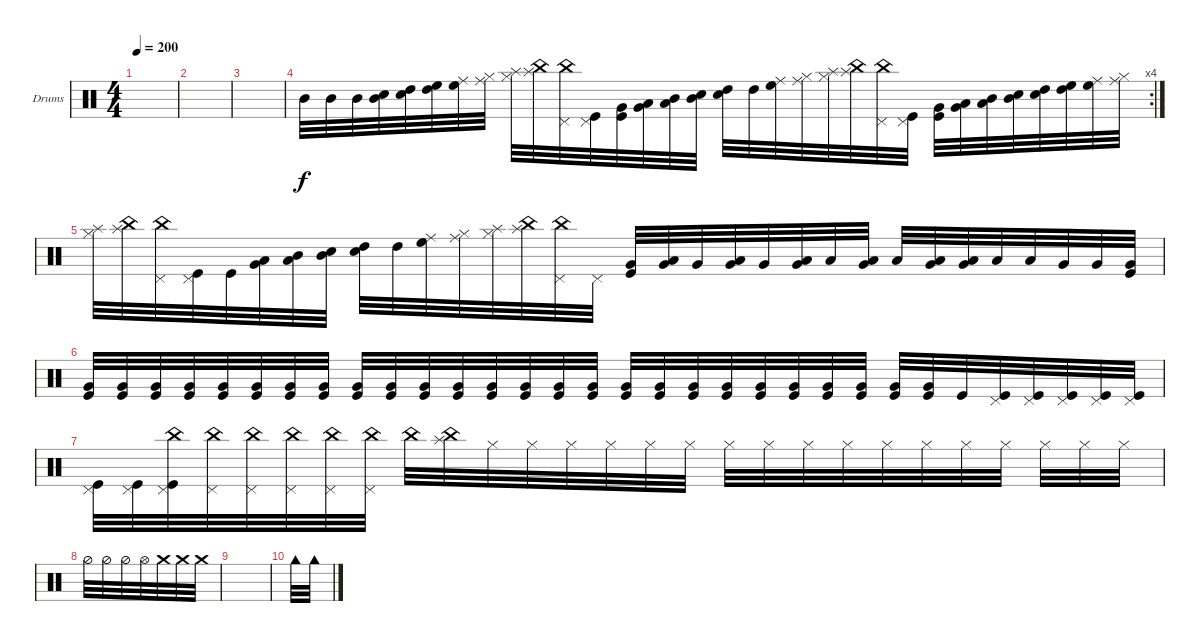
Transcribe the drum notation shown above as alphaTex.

\defaultSystemsLayout 4
\bracketExtendMode groupsimilarinstruments
\firstSystemTrackNameOrientation horizontal
\otherSystemsTrackNameOrientation horizontal
\track ("Drumkit" "Drums") {instrument percussion}
\staff {score}
\articulation defaults
\ts (4 4)
\tempo 200
\clef neutral
\ks c
|
|
|
\rc 4 "Mid Tom (hit)".32 "Mid Tom (hit)".32 "Mid Tom (hit)".32
("Mid Tom (hit)" "Snare (hit) 2").32 ("Snare (hit) 2" "High Tom (hit)").32 ("High Tom (hit)" "High Floor Tom (hit)").32 ("High Floor Tom (hit)" "Ride (middle)").32 ("Ride (middle)" "Hi-Hat (closed)").32 ("Hi-Hat (closed)" "Splash (hit)").32 ("Splash (hit)" "China (hit)").32 ("China (hit)" "Pedal Hi-Hat (hit)").32 ("Pedal Hi-Hat (hit)" "Kick (hit)").32 ("Kick (hit)" "Very Low Tom (hit)").32 ("Very Low Tom (hit)" "Low Tom (hit)").32 ("Low Tom (hit)" "Mid Tom (hit)").32 ("Mid Tom (hit)" "Snare (hit) 2").32 ("Snare (hit) 2" "High Tom (hit)").32 "High Tom (hit)".32 ("High Floor Tom (hit)" "Ride (middle)").32 ("Ride (middle)" "Hi-Hat (closed)").32 ("Hi-Hat (closed)" "Splash (hit)").32 ("Splash (hit)" "China (hit)").32 ("China (hit)" "Pedal Hi-Hat (hit)").32 ("Pedal Hi-Hat (hit)" "Kick (hit)").32 ("Kick (hit)" "Very Low Tom (hit)").32 ("Very Low Tom (hit)" "Low Tom (hit)").32 ("Low Tom (hit)" "Mid Tom (hit)").32 ("Mid Tom (hit)" "Snare (hit) 2").32 ("Snare (hit) 2" "High Tom (hit)").32 ("High Tom (hit)" "High Floor Tom (hit)").32 ("High Floor Tom (hit)" "Ride (middle)").32 ("Ride (middle)" "Hi-Hat (closed)").32 |
("Hi-Hat (closed)" "Splash (hit)").32 ("Splash (hit)" "China (hit)").32 ("China (hit)" "Pedal Hi-Hat (hit)").32 ("Pedal Hi-Hat (hit)" "Kick (hit)").32 "Kick (hit)".32 ("Very Low Tom (hit)" "Low Tom (hit)").32 ("Low Tom (hit)" "Mid Tom (hit)").32 ("Mid Tom (hit)" "Snare (hit) 2").32 ("Snare (hit) 2" "High Tom (hit)").32 "High Tom (hit)".32 ("High Floor Tom (hit)" "Ride (middle)").32 ("Ride (middle)" "Hi-Hat (closed)").32 ("Hi-Hat (closed)" "Splash (hit)").32 ("Splash (hit)" "China (hit)").32 ("China (hit)" "Pedal Hi-Hat (hit)").32 "Pedal Hi-Hat (hit)".32 ("Kick (hit)" "Very Low Tom (hit)").32 ("Very Low Tom (hit)" "Low Tom (hit)").32 "Very Low Tom (hit)".32 ("Very Low Tom (hit)" "Low Tom (hit)").32 "Very Low Tom (hit)".32 ("Very Low Tom (hit)" "Low Tom (hit)").32 "Low Tom (hit)".32 ("Very Low Tom (hit)" "Low Tom (hit)").32 "Low Tom (hit)".32 ("Very Low Tom (hit)" "Low Tom (hit)").32 ("Low Tom (hit)" "Very Low Tom (hit)").32 "Low Tom (hit)".32 "Low Tom (hit)".32 "Very Low Tom (hit)".32 "Very Low Tom (hit)".32 ("Very Low Tom (hit)" "Kick (hit)").32 |
("Kick (hit)" "Very Low Tom (hit)").32 ("Very Low Tom (hit)" "Kick (hit)").32 ("Kick (hit)" "Very Low Tom (hit)").32 ("Very Low Tom (hit)" "Kick (hit)").32 ("Kick (hit)" "Very Low Tom (hit)").32 ("Very Low Tom (hit)" "Kick (hit)").32 ("Kick (hit)" "Very Low Tom (hit)").32 ("Very Low Tom (hit)" "Kick (hit)").32 ("Kick (hit)" "Very Low Tom (hit)").32 ("Very Low Tom (hit)" "Kick (hit)").32 ("Kick (hit)" "Very Low Tom (hit)").32 ("Very Low Tom (hit)" "Kick (hit)").32 ("Kick (hit)" "Very Low Tom (hit)").32 ("Very Low Tom (hit)" "Kick (hit)").32 ("Kick (hit)" "Very Low Tom (hit)").32 ("Very Low Tom (hit)" "Kick (hit)").32 ("Kick (hit)" "Very Low Tom (hit)").32 ("Very Low Tom (hit)" "Kick (hit)").32 ("Kick (hit)" "Very Low Tom (hit)").32 ("Very Low Tom (hit)" "Kick (hit)").32 ("Kick (hit)" "Very Low Tom (hit)").32 ("Very Low Tom (hit)" "Kick (hit)").32 ("Kick (hit)" "Very Low Tom (hit)").32 ("Very Low Tom (hit)" "Kick (hit)").32 ("Kick (hit)" "Very Low Tom (hit)").32 ("Very Low Tom (hit)" "Kick (hit)").32 "Kick (hit)".32 ("Kick (hit)" "Pedal Hi-Hat (hit)").32 ("Pedal Hi-Hat (hit)" "Kick (hit)").32 ("Kick (hit)" "Pedal Hi-Hat (hit)").32 ("Pedal Hi-Hat (hit)" "Kick (hit)").32 ("Kick (hit)" "Pedal Hi-Hat (hit)").32 |
("Pedal Hi-Hat (hit)" "Kick (hit)").32 ("Kick (hit)" "Pedal Hi-Hat (hit)").32 ("Pedal Hi-Hat (hit)" "Kick (hit)" "China (hit)").32 ("China (hit)" "Pedal Hi-Hat (hit)").32 ("Pedal Hi-Hat (hit)" "China (hit)").32 ("China (hit)" "Pedal Hi-Hat (hit)").32 ("Pedal Hi-Hat (hit)" "China (hit)").32 ("China (hit)" "Pedal Hi-Hat (hit)").32 "China (hit)".32 ("China (hit)" "Splash (hit)").32 "Hi-Hat (closed)".32 "Hi-Hat (closed)".32 "Hi-Hat (closed)".32 "Hi-Hat (closed)".32 "Hi-Hat (closed)".32 "Hi-Hat (closed)".32 "Hi-Hat (closed)".32 "Hi-Hat (closed)".32 "Hi-Hat (closed)".32 "Hi-Hat (closed)".32 "Hi-Hat (closed)".32 "Hi-Hat (closed)".32 "Hi-Hat (closed)".32 "Hi-Hat (closed)".32 "Hi-Hat (closed)".32 "Hi-Hat (closed)".32 "Hi-Hat (closed)".32 |
"Hi-Hat (half)".32 "Hi-Hat (half)".32 "Hi-Hat (half)".32 "Hi-Hat (open)".32 "Crash medium (hit)".32 "Crash medium (hit)".32 "Crash medium (hit)".32 |
|
"Cowbell high (hit)".32 "Cowbell high (hit)".32
